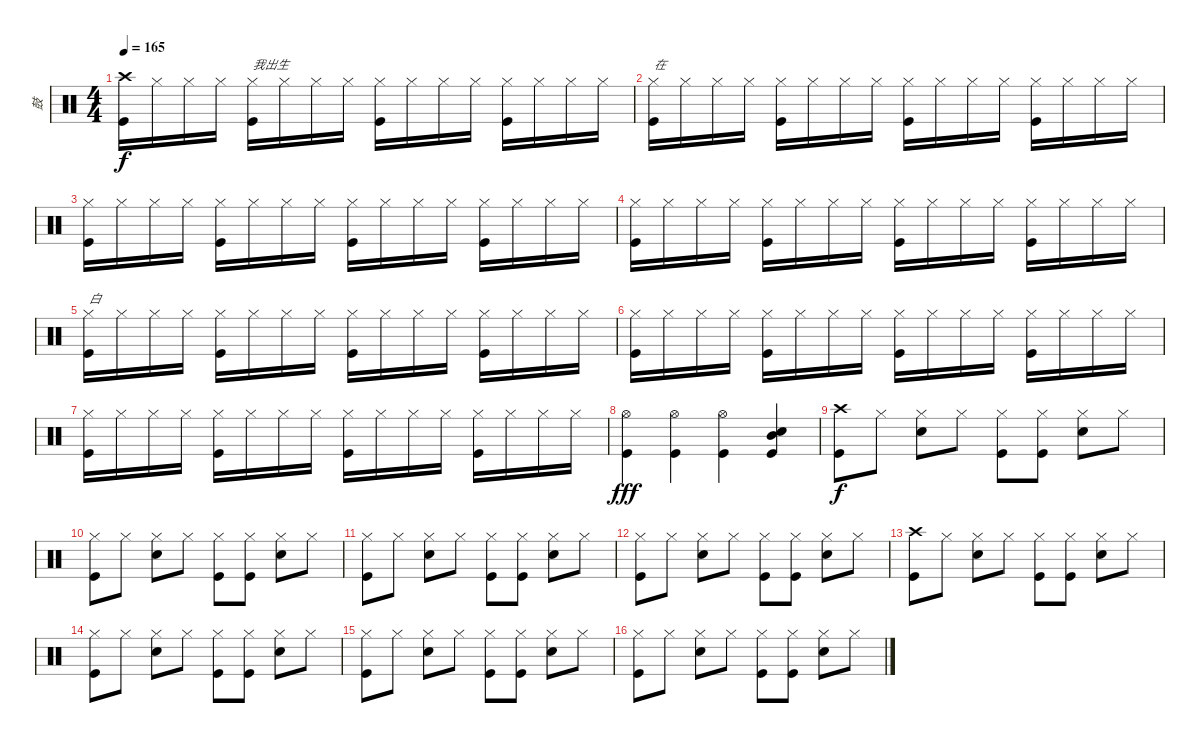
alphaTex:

\track ("鼓" "鼓") {instrument percussion}
\staff {score}
\articulation defaults
\ts (4 4)
\tempo 165
\clef neutral
\ks c
("Crash high (hit)" "Kick (hit)").16{dy f} "Hi-Hat (closed)".16 "Hi-Hat (closed)".16 "Hi-Hat (closed)".16 ("Hi-Hat (closed)" "Kick (hit)").16{txt "我出生"} "Hi-Hat (closed)".16 "Hi-Hat (closed)".16 "Hi-Hat (closed)".16 ("Hi-Hat (closed)" "Kick (hit)").16 "Hi-Hat (closed)".16 "Hi-Hat (closed)".16 "Hi-Hat (closed)".16 ("Hi-Hat (closed)" "Kick (hit)").16 "Hi-Hat (closed)".16 "Hi-Hat (closed)".16 "Hi-Hat (closed)".16 |
("Hi-Hat (closed)" "Kick (hit)").16{txt "在"} "Hi-Hat (closed)".16 "Hi-Hat (closed)".16 "Hi-Hat (closed)".16 ("Hi-Hat (closed)" "Kick (hit)").16 "Hi-Hat (closed)".16 "Hi-Hat (closed)".16 "Hi-Hat (closed)".16 ("Hi-Hat (closed)" "Kick (hit)").16 "Hi-Hat (closed)".16 "Hi-Hat (closed)".16 "Hi-Hat (closed)".16 ("Hi-Hat (closed)" "Kick (hit)").16 "Hi-Hat (closed)".16 "Hi-Hat (closed)".16 "Hi-Hat (closed)".16 |
("Hi-Hat (closed)" "Kick (hit)").16 "Hi-Hat (closed)".16 "Hi-Hat (closed)".16 "Hi-Hat (closed)".16 ("Hi-Hat (closed)" "Kick (hit)").16 "Hi-Hat (closed)".16 "Hi-Hat (closed)".16 "Hi-Hat (closed)".16 ("Hi-Hat (closed)" "Kick (hit)").16 "Hi-Hat (closed)".16 "Hi-Hat (closed)".16 "Hi-Hat (closed)".16 ("Hi-Hat (closed)" "Kick (hit)").16 "Hi-Hat (closed)".16 "Hi-Hat (closed)".16 "Hi-Hat (closed)".16 |
("Hi-Hat (closed)" "Kick (hit)").16 "Hi-Hat (closed)".16 "Hi-Hat (closed)".16 "Hi-Hat (closed)".16 ("Hi-Hat (closed)" "Kick (hit)").16 "Hi-Hat (closed)".16 "Hi-Hat (closed)".16 "Hi-Hat (closed)".16 ("Hi-Hat (closed)" "Kick (hit)").16 "Hi-Hat (closed)".16 "Hi-Hat (closed)".16 "Hi-Hat (closed)".16 ("Hi-Hat (closed)" "Kick (hit)").16 "Hi-Hat (closed)".16 "Hi-Hat (closed)".16 "Hi-Hat (closed)".16 |
("Hi-Hat (closed)" "Kick (hit)").16{txt "白"} "Hi-Hat (closed)".16 "Hi-Hat (closed)".16 "Hi-Hat (closed)".16 ("Hi-Hat (closed)" "Kick (hit)").16 "Hi-Hat (closed)".16 "Hi-Hat (closed)".16 "Hi-Hat (closed)".16 ("Hi-Hat (closed)" "Kick (hit)").16 "Hi-Hat (closed)".16 "Hi-Hat (closed)".16 "Hi-Hat (closed)".16 ("Hi-Hat (closed)" "Kick (hit)").16 "Hi-Hat (closed)".16 "Hi-Hat (closed)".16 "Hi-Hat (closed)".16 |
("Hi-Hat (closed)" "Kick (hit)").16 "Hi-Hat (closed)".16 "Hi-Hat (closed)".16 "Hi-Hat (closed)".16 ("Hi-Hat (closed)" "Kick (hit)").16 "Hi-Hat (closed)".16 "Hi-Hat (closed)".16 "Hi-Hat (closed)".16 ("Hi-Hat (closed)" "Kick (hit)").16 "Hi-Hat (closed)".16 "Hi-Hat (closed)".16 "Hi-Hat (closed)".16 ("Hi-Hat (closed)" "Kick (hit)").16 "Hi-Hat (closed)".16 "Hi-Hat (closed)".16 "Hi-Hat (closed)".16 |
("Hi-Hat (closed)" "Kick (hit)").16 "Hi-Hat (closed)".16 "Hi-Hat (closed)".16 "Hi-Hat (closed)".16 ("Hi-Hat (closed)" "Kick (hit)").16 "Hi-Hat (closed)".16 "Hi-Hat (closed)".16 "Hi-Hat (closed)".16 ("Hi-Hat (closed)" "Kick (hit)").16 "Hi-Hat (closed)".16 "Hi-Hat (closed)".16 "Hi-Hat (closed)".16 ("Hi-Hat (closed)" "Kick (hit)").16 "Hi-Hat (closed)".16 "Hi-Hat (closed)".16 "Hi-Hat (closed)".16 |
("Hi-Hat (open)" "Kick (hit)").4{dy fff} ("Hi-Hat (open)" "Kick (hit)").4 ("Hi-Hat (open)" "Kick (hit)").4 ("Snare (hit) 2" "Mid Tom (hit)" "Kick (hit)").4 |
("Crash high (hit)" "Kick (hit)").8{dy f} "Hi-Hat (closed)".8 ("Hi-Hat (closed)" "Snare (hit) 2").8 "Hi-Hat (closed)".8 ("Hi-Hat (closed)" "Kick (hit)").8 ("Hi-Hat (closed)" "Kick (hit)").8 ("Hi-Hat (closed)" "Snare (hit) 2").8 "Hi-Hat (closed)".8 |
("Hi-Hat (closed)" "Kick (hit)").8 "Hi-Hat (closed)".8 ("Hi-Hat (closed)" "Snare (hit) 2").8 "Hi-Hat (closed)".8 ("Hi-Hat (closed)" "Kick (hit)").8 ("Hi-Hat (closed)" "Kick (hit)").8 ("Hi-Hat (closed)" "Snare (hit) 2").8 "Hi-Hat (closed)".8 |
("Hi-Hat (closed)" "Kick (hit)").8 "Hi-Hat (closed)".8 ("Hi-Hat (closed)" "Snare (hit) 2").8 "Hi-Hat (closed)".8 ("Hi-Hat (closed)" "Kick (hit)").8 ("Hi-Hat (closed)" "Kick (hit)").8 ("Hi-Hat (closed)" "Snare (hit) 2").8 "Hi-Hat (closed)".8 |
("Hi-Hat (closed)" "Kick (hit)").8 "Hi-Hat (closed)".8 ("Hi-Hat (closed)" "Snare (hit) 2").8 "Hi-Hat (closed)".8 ("Hi-Hat (closed)" "Kick (hit)").8 ("Hi-Hat (closed)" "Kick (hit)").8 ("Hi-Hat (closed)" "Snare (hit) 2").8 "Hi-Hat (closed)".8 |
("Crash high (hit)" "Kick (hit)").8 "Hi-Hat (closed)".8 ("Hi-Hat (closed)" "Snare (hit) 2").8 "Hi-Hat (closed)".8 ("Hi-Hat (closed)" "Kick (hit)").8 ("Hi-Hat (closed)" "Kick (hit)").8 ("Hi-Hat (closed)" "Snare (hit) 2").8 "Hi-Hat (closed)".8 |
("Hi-Hat (closed)" "Kick (hit)").8 "Hi-Hat (closed)".8 ("Hi-Hat (closed)" "Snare (hit) 2").8 "Hi-Hat (closed)".8 ("Hi-Hat (closed)" "Kick (hit)").8 ("Hi-Hat (closed)" "Kick (hit)").8 ("Hi-Hat (closed)" "Snare (hit) 2").8 "Hi-Hat (closed)".8 |
("Hi-Hat (closed)" "Kick (hit)").8 "Hi-Hat (closed)".8 ("Hi-Hat (closed)" "Snare (hit) 2").8 "Hi-Hat (closed)".8 ("Hi-Hat (closed)" "Kick (hit)").8 ("Hi-Hat (closed)" "Kick (hit)").8 ("Hi-Hat (closed)" "Snare (hit) 2").8 "Hi-Hat (closed)".8 |
("Hi-Hat (closed)" "Kick (hit)").8 "Hi-Hat (closed)".8 ("Hi-Hat (closed)" "Snare (hit) 2").8 "Hi-Hat (closed)".8 ("Hi-Hat (closed)" "Kick (hit)").8 ("Hi-Hat (closed)" "Kick (hit)").8 ("Hi-Hat (closed)" "Snare (hit) 2").8 "Hi-Hat (closed)".8
